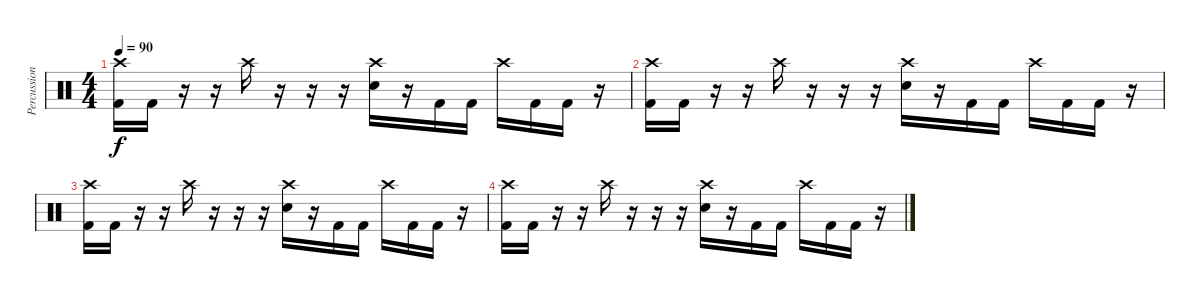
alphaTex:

\track ("Percussion" "Percussion") {instrument percussion}
\staff {score}
\articulation defaults
\ts (4 4)
\tempo 90
\clef neutral
\ks c
("Crash high (hit)" "Kick (hit) 2").16{dy f} "Kick (hit) 2".16 r.16 r.16 "Crash high (hit)".16 r.16 r.16 r.16 ("Crash high (hit)" "Snare (hit) 2").16 r.16 "Kick (hit) 2".16 "Kick (hit) 2".16 "Crash high (hit)".16 "Kick (hit) 2".16 "Kick (hit) 2".16 r.16 |
("Crash high (hit)" "Kick (hit) 2").16 "Kick (hit) 2".16 r.16 r.16 "Crash high (hit)".16 r.16 r.16 r.16 ("Crash high (hit)" "Snare (hit) 2").16 r.16 "Kick (hit) 2".16 "Kick (hit) 2".16 "Crash high (hit)".16 "Kick (hit) 2".16 "Kick (hit) 2".16 r.16 |
("Crash high (hit)" "Kick (hit) 2").16 "Kick (hit) 2".16 r.16 r.16 "Crash high (hit)".16 r.16 r.16 r.16 ("Crash high (hit)" "Snare (hit) 2").16 r.16 "Kick (hit) 2".16 "Kick (hit) 2".16 "Crash high (hit)".16 "Kick (hit) 2".16 "Kick (hit) 2".16 r.16 |
("Crash high (hit)" "Kick (hit) 2").16 "Kick (hit) 2".16 r.16 r.16 "Crash high (hit)".16 r.16 r.16 r.16 ("Crash high (hit)" "Snare (hit) 2").16 r.16 "Kick (hit) 2".16 "Kick (hit) 2".16 "Crash high (hit)".16 "Kick (hit) 2".16 "Kick (hit) 2".16 r.16
